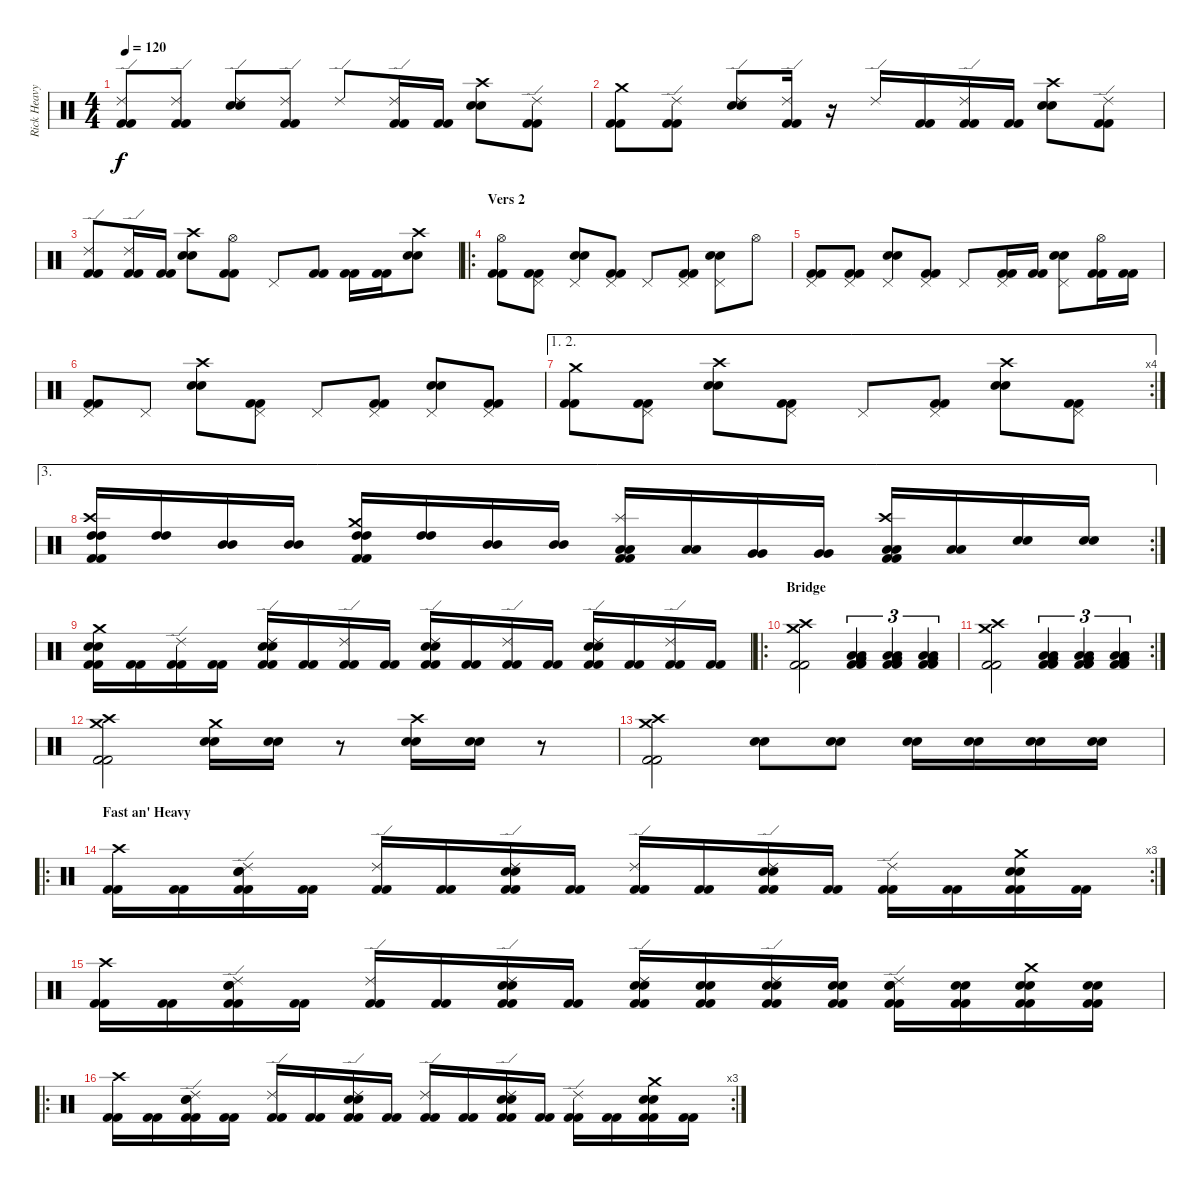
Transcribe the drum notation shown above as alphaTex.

\track ("Rick Heavy" "Rick Heavy") {instrument percussion}
\staff {score}
\articulation defaults
\ts (4 4)
\tempo 120
\clef neutral
\ks c
("Ride (edge) 2" "Kick (hit) 2" "Kick (hit) 2").8{dy f} ("Ride (edge) 2" "Kick (hit) 2" "Kick (hit) 2").8 ("Ride (edge) 2" "Electric Snare (hit)" "Snare (hit) 2").8 ("Ride (edge) 2" "Kick (hit) 2" "Kick (hit) 2").8 "Ride (edge) 2".8 ("Ride (edge) 2" "Kick (hit) 2" "Kick (hit) 2").16 ("Kick (hit) 2" "Kick (hit) 2").16 ("Crash high (hit)" "Electric Snare (hit)" "Snare (hit) 2").8 ("Ride (edge) 2" "Kick (hit) 2" "Kick (hit) 2").8 |
("Crash medium (hit)" "Kick (hit) 2" "Kick (hit) 2").8 ("Ride (edge) 2" "Kick (hit) 2" "Kick (hit) 2").8 ("Ride (edge) 2" "Electric Snare (hit)" "Snare (hit) 2").8 ("Ride (edge) 2" "Kick (hit) 2" "Kick (hit) 2").16 r.16 "Ride (edge) 2".16 ("Kick (hit) 2" "Kick (hit) 2").16 ("Ride (edge) 2" "Kick (hit) 2" "Kick (hit) 2").16 ("Kick (hit) 2" "Kick (hit) 2").16 ("Crash high (hit)" "Electric Snare (hit)" "Snare (hit) 2").8 ("Ride (edge) 2" "Kick (hit) 2" "Kick (hit) 2").8 |
("Ride (edge) 2" "Kick (hit) 2" "Kick (hit) 2").8 ("Ride (edge) 2" "Kick (hit) 2" "Kick (hit) 2").16 ("Kick (hit) 2" "Kick (hit) 2").16 ("Crash high (hit)" "Electric Snare (hit)" "Snare (hit) 2").8 ("Hi-Hat (open)" "Kick (hit) 2" "Kick (hit) 2").8 "Pedal Hi-Hat (hit)".8 ("Kick (hit) 2" "Kick (hit) 2").8 ("Kick (hit) 2" "Kick (hit) 2").16 ("Kick (hit) 2" "Kick (hit) 2").16 ("Crash high (hit)" "Electric Snare (hit)" "Snare (hit) 2").8 |
\ro
\section ("" "Vers 2")
("Hi-Hat (open)" "Kick (hit) 2" "Kick (hit) 2").8 ("Pedal Hi-Hat (hit)" "Kick (hit) 2" "Kick (hit) 2").8 ("Pedal Hi-Hat (hit)" "Electric Snare (hit)" "Snare (hit) 2").8 ("Pedal Hi-Hat (hit)" "Kick (hit) 2" "Kick (hit) 2").8 "Pedal Hi-Hat (hit)".8 ("Pedal Hi-Hat (hit)" "Kick (hit) 2" "Kick (hit) 2").8 ("Pedal Hi-Hat (hit)" "Electric Snare (hit)" "Snare (hit) 2").8 "Hi-Hat (open)".8 |
("Pedal Hi-Hat (hit)" "Kick (hit) 2" "Kick (hit) 2").8 ("Pedal Hi-Hat (hit)" "Kick (hit) 2" "Kick (hit) 2").8 ("Pedal Hi-Hat (hit)" "Electric Snare (hit)" "Snare (hit) 2").8 ("Pedal Hi-Hat (hit)" "Kick (hit) 2" "Kick (hit) 2").8 "Pedal Hi-Hat (hit)".8 ("Pedal Hi-Hat (hit)" "Kick (hit) 2" "Kick (hit) 2").16 ("Kick (hit) 2" "Kick (hit) 2").16 ("Pedal Hi-Hat (hit)" "Electric Snare (hit)" "Snare (hit) 2").8 ("Hi-Hat (open)" "Kick (hit) 2" "Kick (hit) 2").16 ("Kick (hit) 2" "Kick (hit) 2").16 |
("Pedal Hi-Hat (hit)" "Kick (hit) 2" "Kick (hit) 2").8 "Pedal Hi-Hat (hit)".8 ("Crash high (hit)" "Electric Snare (hit)" "Snare (hit) 2").8 ("Pedal Hi-Hat (hit)" "Kick (hit) 2" "Kick (hit) 2").8 "Pedal Hi-Hat (hit)".8 ("Pedal Hi-Hat (hit)" "Kick (hit) 2" "Kick (hit) 2").8 ("Pedal Hi-Hat (hit)" "Electric Snare (hit)" "Snare (hit) 2").8 ("Pedal Hi-Hat (hit)" "Kick (hit) 2" "Kick (hit) 2").8 |
\ae (1 2)
\rc 4
("Crash medium (hit)" "Kick (hit) 2" "Kick (hit) 2").8 ("Pedal Hi-Hat (hit)" "Kick (hit) 2" "Kick (hit) 2").8 ("Crash high (hit)" "Electric Snare (hit)" "Snare (hit) 2").8 ("Pedal Hi-Hat (hit)" "Kick (hit) 2" "Kick (hit) 2").8 "Pedal Hi-Hat (hit)".8 ("Pedal Hi-Hat (hit)" "Kick (hit) 2" "Kick (hit) 2").8 ("Crash high (hit)" "Electric Snare (hit)" "Snare (hit) 2").8 ("Pedal Hi-Hat (hit)" "Kick (hit) 2" "Kick (hit) 2").8 |
\ae 3
\rc 2
("Crash high (hit)" "High Tom (hit)" "High Tom (hit)" "Kick (hit) 2" "Kick (hit) 2").16 ("High Tom (hit)" "High Tom (hit)").16 ("Mid Tom (hit)" "Mid Tom (hit)").16 ("Mid Tom (hit)" "Mid Tom (hit)").16 ("Crash medium (hit)" "High Tom (hit)" "High Tom (hit)" "Kick (hit) 2" "Kick (hit) 2").16 ("High Tom (hit)" "High Tom (hit)").16 ("Mid Tom (hit)" "Mid Tom (hit)").16 ("Mid Tom (hit)" "Mid Tom (hit)").16 ("Splash (hit)" "Low Tom (hit)" "Low Tom (hit)" "Kick (hit) 2" "Kick (hit) 2").16 ("Low Tom (hit)" "Low Tom (hit)").16 ("Very Low Tom (hit)" "Very Low Tom (hit)").16 ("Very Low Tom (hit)" "Very Low Tom (hit)").16 ("Crash high (hit)" "Low Floor Tom (hit)" "Low Floor Tom (hit)" "Kick (hit) 2" "Kick (hit) 2").16 ("Low Floor Tom (hit)" "Low Floor Tom (hit)").16 ("Electric Snare (hit)" "Snare (hit) 2").16 ("Electric Snare (hit)" "Snare (hit) 2").16 |
("Crash medium (hit)" "Electric Snare (hit)" "Snare (hit) 2" "Kick (hit) 2" "Kick (hit) 2").16 ("Kick (hit) 2" "Kick (hit) 2").16 ("Ride (edge) 2" "Kick (hit) 2" "Kick (hit) 2").16 ("Kick (hit) 2" "Kick (hit) 2").16 ("Ride (edge) 2" "Electric Snare (hit)" "Snare (hit) 2" "Kick (hit) 2" "Kick (hit) 2").16 ("Kick (hit) 2" "Kick (hit) 2").16 ("Ride (edge) 2" "Kick (hit) 2" "Kick (hit) 2").16 ("Kick (hit) 2" "Kick (hit) 2").16 ("Ride (edge) 2" "Electric Snare (hit)" "Snare (hit) 2" "Kick (hit) 2" "Kick (hit) 2").16 ("Kick (hit) 2" "Kick (hit) 2").16 ("Ride (edge) 2" "Kick (hit) 2" "Kick (hit) 2").16 ("Kick (hit) 2" "Kick (hit) 2").16 ("Ride (edge) 2" "Electric Snare (hit)" "Snare (hit) 2" "Kick (hit) 2" "Kick (hit) 2").16 ("Kick (hit) 2" "Kick (hit) 2").16 ("Ride (edge) 2" "Kick (hit) 2" "Kick (hit) 2").16 ("Kick (hit) 2" "Kick (hit) 2").16 |
\ro
\section ("" "Bridge")
("Crash high (hit)" "Crash medium (hit)" "Kick (hit) 2" "Kick (hit) 2").2 ("Low Tom (hit)" "Very Low Tom (hit)" "Low Floor Tom (hit)" "Kick (hit) 2" "Kick (hit) 2").4{tu (3 2)} ("Low Tom (hit)" "Very Low Tom (hit)" "Low Floor Tom (hit)" "Kick (hit) 2" "Kick (hit) 2").4{tu (3 2)} ("Low Tom (hit)" "Very Low Tom (hit)" "Low Floor Tom (hit)" "Kick (hit) 2" "Kick (hit) 2").4{tu (3 2)} |
\rc 2
("Crash high (hit)" "Crash medium (hit)" "Kick (hit) 2" "Kick (hit) 2").2 ("Low Tom (hit)" "Very Low Tom (hit)" "Low Floor Tom (hit)" "Kick (hit) 2" "Kick (hit) 2").4{tu (3 2)} ("Low Tom (hit)" "Very Low Tom (hit)" "Low Floor Tom (hit)" "Kick (hit) 2" "Kick (hit) 2").4{tu (3 2)} ("Low Tom (hit)" "Very Low Tom (hit)" "Low Floor Tom (hit)" "Kick (hit) 2" "Kick (hit) 2").4{tu (3 2)} |
("Crash high (hit)" "Crash medium (hit)" "Kick (hit) 2" "Kick (hit) 2").2 ("Crash medium (hit)" "Electric Snare (hit)" "Snare (hit) 2").16 ("Electric Snare (hit)" "Snare (hit) 2").16 r.8 ("Crash high (hit)" "Electric Snare (hit)" "Snare (hit) 2").16 ("Electric Snare (hit)" "Snare (hit) 2").16 r.8 |
("Crash medium (hit)" "Crash high (hit)" "Kick (hit) 2" "Kick (hit) 2").2 ("Electric Snare (hit)" "Snare (hit) 2").8 ("Electric Snare (hit)" "Snare (hit) 2").8 ("Electric Snare (hit)" "Snare (hit) 2").16 ("Electric Snare (hit)" "Snare (hit) 2").16 ("Electric Snare (hit)" "Snare (hit) 2").16 ("Electric Snare (hit)" "Snare (hit) 2").16 |
\ro
\rc 3
\section ("" "Fast an' Heavy")
("Crash high (hit)" "Kick (hit) 2" "Kick (hit) 2").16 ("Kick (hit) 2" "Kick (hit) 2").16 ("Ride (edge) 2" "Electric Snare (hit)" "Snare (hit) 2" "Kick (hit) 2" "Kick (hit) 2").16 ("Kick (hit) 2" "Kick (hit) 2").16 ("Ride (edge) 2" "Kick (hit) 2" "Kick (hit) 2").16 ("Kick (hit) 2" "Kick (hit) 2").16 ("Ride (edge) 2" "Electric Snare (hit)" "Snare (hit) 2" "Kick (hit) 2" "Kick (hit) 2").16 ("Kick (hit) 2" "Kick (hit) 2").16 ("Ride (edge) 2" "Kick (hit) 2" "Kick (hit) 2").16 ("Kick (hit) 2" "Kick (hit) 2").16 ("Ride (edge) 2" "Electric Snare (hit)" "Snare (hit) 2" "Kick (hit) 2" "Kick (hit) 2").16 ("Kick (hit) 2" "Kick (hit) 2").16 ("Ride (edge) 2" "Kick (hit) 2" "Kick (hit) 2").16 ("Kick (hit) 2" "Kick (hit) 2").16 ("Crash medium (hit)" "Electric Snare (hit)" "Snare (hit) 2" "Kick (hit) 2" "Kick (hit) 2").16 ("Kick (hit) 2" "Kick (hit) 2").16 |
("Crash high (hit)" "Kick (hit) 2" "Kick (hit) 2").16 ("Kick (hit) 2" "Kick (hit) 2").16 ("Ride (edge) 2" "Electric Snare (hit)" "Snare (hit) 2" "Kick (hit) 2" "Kick (hit) 2").16 ("Kick (hit) 2" "Kick (hit) 2").16 ("Ride (edge) 2" "Kick (hit) 2" "Kick (hit) 2").16 ("Kick (hit) 2" "Kick (hit) 2").16 ("Ride (edge) 2" "Electric Snare (hit)" "Snare (hit) 2" "Kick (hit) 2" "Kick (hit) 2").16 ("Kick (hit) 2" "Kick (hit) 2").16 ("Ride (edge) 2" "Electric Snare (hit)" "Snare (hit) 2" "Kick (hit) 2" "Kick (hit) 2").16 ("Electric Snare (hit)" "Snare (hit) 2" "Kick (hit) 2" "Kick (hit) 2").16 ("Ride (edge) 2" "Electric Snare (hit)" "Snare (hit) 2" "Kick (hit) 2" "Kick (hit) 2").16 ("Electric Snare (hit)" "Snare (hit) 2" "Kick (hit) 2" "Kick (hit) 2").16 ("Ride (edge) 2" "Electric Snare (hit)" "Snare (hit) 2" "Kick (hit) 2" "Kick (hit) 2").16 ("Electric Snare (hit)" "Snare (hit) 2" "Kick (hit) 2" "Kick (hit) 2").16 ("Crash medium (hit)" "Electric Snare (hit)" "Snare (hit) 2" "Kick (hit) 2" "Kick (hit) 2").16 ("Electric Snare (hit)" "Snare (hit) 2" "Kick (hit) 2" "Kick (hit) 2").16 |
\ro
\rc 3
("Crash high (hit)" "Kick (hit) 2" "Kick (hit) 2").16 ("Kick (hit) 2" "Kick (hit) 2").16 ("Ride (edge) 2" "Electric Snare (hit)" "Snare (hit) 2" "Kick (hit) 2" "Kick (hit) 2").16 ("Kick (hit) 2" "Kick (hit) 2").16 ("Ride (edge) 2" "Kick (hit) 2" "Kick (hit) 2").16 ("Kick (hit) 2" "Kick (hit) 2").16 ("Ride (edge) 2" "Electric Snare (hit)" "Snare (hit) 2" "Kick (hit) 2" "Kick (hit) 2").16 ("Kick (hit) 2" "Kick (hit) 2").16 ("Ride (edge) 2" "Kick (hit) 2" "Kick (hit) 2").16 ("Kick (hit) 2" "Kick (hit) 2").16 ("Ride (edge) 2" "Electric Snare (hit)" "Snare (hit) 2" "Kick (hit) 2" "Kick (hit) 2").16 ("Kick (hit) 2" "Kick (hit) 2").16 ("Ride (edge) 2" "Kick (hit) 2" "Kick (hit) 2").16 ("Kick (hit) 2" "Kick (hit) 2").16 ("Crash medium (hit)" "Electric Snare (hit)" "Snare (hit) 2" "Kick (hit) 2" "Kick (hit) 2").16 ("Kick (hit) 2" "Kick (hit) 2").16
